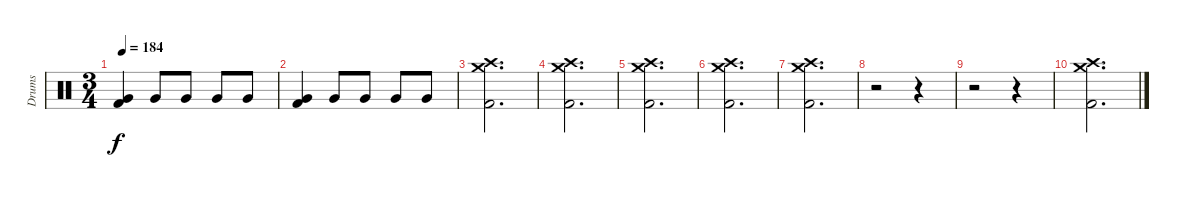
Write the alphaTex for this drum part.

\track ("Drums" "Drums") {instrument percussion}
\staff {score}
\articulation defaults
\ts (3 4)
\tempo 184
\clef neutral
\ks c
("Very Low Tom (hit)" "Kick (hit) 2").4{dy f} "Very Low Tom (hit)".8 "Very Low Tom (hit)".8 "Very Low Tom (hit)".8 "Very Low Tom (hit)".8 |
("Very Low Tom (hit)" "Kick (hit) 2").4 "Very Low Tom (hit)".8 "Very Low Tom (hit)".8 "Very Low Tom (hit)".8 "Very Low Tom (hit)".8 |
("Crash high (hit)" "Crash medium (hit)" "Kick (hit) 2").2{d} |
("Crash high (hit)" "Crash medium (hit)" "Kick (hit) 2").2{d} |
("Crash high (hit)" "Crash medium (hit)" "Kick (hit) 2").2{d} |
("Crash high (hit)" "Crash medium (hit)" "Kick (hit) 2").2{d} |
("Crash high (hit)" "Crash medium (hit)" "Kick (hit) 2").2{d} |
r.2 r.4 |
r.2 r.4 |
("Crash high (hit)" "Crash medium (hit)" "Kick (hit) 2").2{d}
